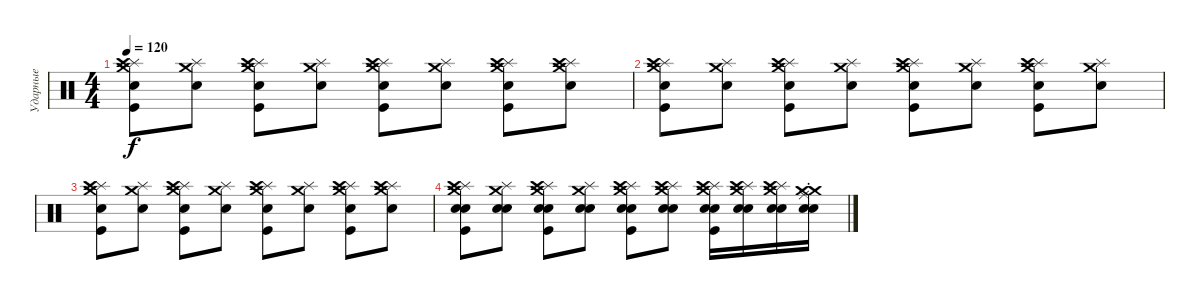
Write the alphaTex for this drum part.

\track ("Ударные" "Ударные") {instrument percussion}
\staff {score}
\articulation defaults
\ts (4 4)
\tempo 120
\clef neutral
\ks c
("Splash (hit)" "Crash medium (hit)" "Crash high (hit)" "Electric Snare (hit)" "Kick (hit)").8{dy f} ("Splash (hit)" "Crash medium (hit)" "Snare (hit) 2").8 ("Splash (hit)" "Crash medium (hit)" "Crash high (hit)" "Electric Snare (hit)" "Kick (hit)").8 ("Splash (hit)" "Crash medium (hit)" "Snare (hit) 2").8 ("Splash (hit)" "Crash medium (hit)" "Crash high (hit)" "Electric Snare (hit)" "Kick (hit)").8 ("Splash (hit)" "Crash medium (hit)" "Snare (hit) 2").8 ("Splash (hit)" "Crash medium (hit)" "Crash high (hit)" "Electric Snare (hit)" "Kick (hit)").8 ("Splash (hit)" "Crash medium (hit)" "Crash high (hit)" "Snare (hit) 2").8 |
("Splash (hit)" "Crash medium (hit)" "Crash high (hit)" "Electric Snare (hit)" "Kick (hit)").8 ("Splash (hit)" "Crash medium (hit)" "Snare (hit) 2").8 ("Splash (hit)" "Crash medium (hit)" "Crash high (hit)" "Electric Snare (hit)" "Kick (hit)").8 ("Splash (hit)" "Crash medium (hit)" "Snare (hit) 2").8 ("Splash (hit)" "Crash medium (hit)" "Crash high (hit)" "Electric Snare (hit)" "Kick (hit)").8 ("Splash (hit)" "Crash medium (hit)" "Snare (hit) 2").8 ("Splash (hit)" "Crash medium (hit)" "Crash high (hit)" "Electric Snare (hit)" "Kick (hit)").8 ("Splash (hit)" "Crash medium (hit)" "Snare (hit) 2").8 |
("Splash (hit)" "Crash medium (hit)" "Crash high (hit)" "Electric Snare (hit)" "Kick (hit)").8 ("Splash (hit)" "Crash medium (hit)" "Snare (hit) 2").8 ("Splash (hit)" "Crash medium (hit)" "Crash high (hit)" "Electric Snare (hit)" "Kick (hit)").8 ("Splash (hit)" "Crash medium (hit)" "Snare (hit) 2").8 ("Splash (hit)" "Crash medium (hit)" "Crash high (hit)" "Electric Snare (hit)" "Kick (hit)").8 ("Splash (hit)" "Crash medium (hit)" "Snare (hit) 2").8 ("Splash (hit)" "Crash medium (hit)" "Crash high (hit)" "Electric Snare (hit)" "Kick (hit)").8 ("Splash (hit)" "Crash medium (hit)" "Crash high (hit)" "Snare (hit) 2").8 |
("Splash (hit)" "Crash medium (hit)" "Crash high (hit)" "Electric Snare (hit)" "Electric Snare (hit)" "Kick (hit)").8 ("Splash (hit)" "Crash medium (hit)" "Snare (hit) 2" "Snare (hit) 2").8 ("Splash (hit)" "Crash medium (hit)" "Crash high (hit)" "Electric Snare (hit)" "Electric Snare (hit)" "Kick (hit)").8 ("Splash (hit)" "Crash medium (hit)" "Snare (hit) 2" "Snare (hit) 2").8 ("Splash (hit)" "Crash medium (hit)" "Crash high (hit)" "Electric Snare (hit)" "Electric Snare (hit)" "Kick (hit)").8 ("Splash (hit)" "Crash medium (hit)" "Crash high (hit)" "Snare (hit) 2" "Snare (hit) 2").8 ("Splash (hit)" "Crash medium (hit)" "Crash high (hit)" "Snare (hit) 2" "Snare (hit) 2" "Kick (hit)").16 ("Splash (hit)" "Crash medium (hit)" "Crash high (hit)" "Snare (hit) 2" "Snare (hit) 2").16 ("Splash (hit)" "Crash medium (hit)" "Crash high (hit)" "Snare (hit) 2" "Snare (hit) 2").16 ("Crash medium (hit)" "Crash medium (hit)" "Ride (choke)" "Snare (hit) 2" "Snare (hit) 2").16
